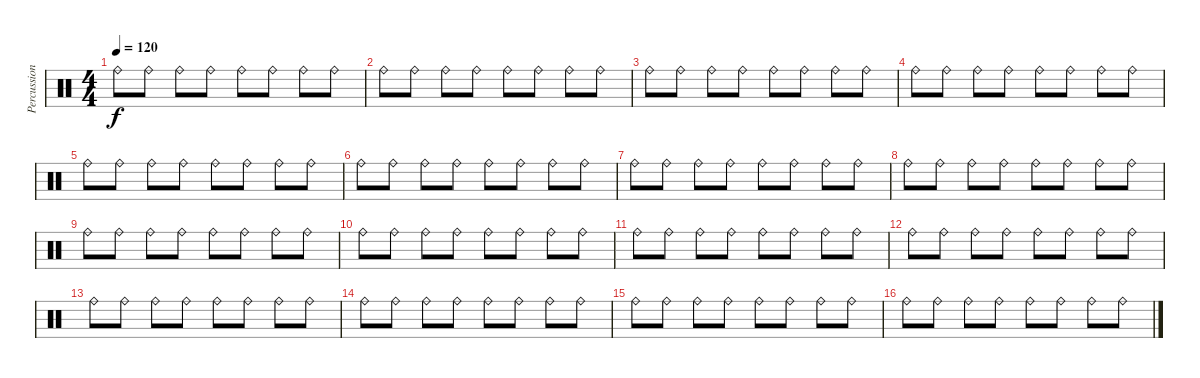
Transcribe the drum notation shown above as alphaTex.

\track ("Percussion" "Percussion") {instrument percussion}
\staff {score}
\articulation defaults
\ts (4 4)
\tempo 120
\clef neutral
\ks c "Ride (bell)".8{dy f} "Ride (bell)".8 "Ride (bell)".8 "Ride (bell)".8 "Ride (bell)".8 "Ride (bell)".8 "Ride (bell)".8 "Ride (bell)".8
|
"Ride (bell)".8 "Ride (bell)".8 "Ride (bell)".8 "Ride (bell)".8 "Ride (bell)".8 "Ride (bell)".8 "Ride (bell)".8 "Ride (bell)".8 |
"Ride (bell)".8 "Ride (bell)".8 "Ride (bell)".8 "Ride (bell)".8 "Ride (bell)".8 "Ride (bell)".8 "Ride (bell)".8 "Ride (bell)".8 |
"Ride (bell)".8 "Ride (bell)".8 "Ride (bell)".8 "Ride (bell)".8 "Ride (bell)".8 "Ride (bell)".8 "Ride (bell)".8 "Ride (bell)".8 |
"Ride (bell)".8 "Ride (bell)".8 "Ride (bell)".8 "Ride (bell)".8 "Ride (bell)".8 "Ride (bell)".8 "Ride (bell)".8 "Ride (bell)".8 |
"Ride (bell)".8 "Ride (bell)".8 "Ride (bell)".8 "Ride (bell)".8 "Ride (bell)".8 "Ride (bell)".8 "Ride (bell)".8 "Ride (bell)".8 |
"Ride (bell)".8 "Ride (bell)".8 "Ride (bell)".8 "Ride (bell)".8 "Ride (bell)".8 "Ride (bell)".8 "Ride (bell)".8 "Ride (bell)".8 |
"Ride (bell)".8 "Ride (bell)".8 "Ride (bell)".8 "Ride (bell)".8 "Ride (bell)".8 "Ride (bell)".8 "Ride (bell)".8 "Ride (bell)".8 |
"Ride (bell)".8 "Ride (bell)".8 "Ride (bell)".8 "Ride (bell)".8 "Ride (bell)".8 "Ride (bell)".8 "Ride (bell)".8 "Ride (bell)".8 |
"Ride (bell)".8 "Ride (bell)".8 "Ride (bell)".8 "Ride (bell)".8 "Ride (bell)".8 "Ride (bell)".8 "Ride (bell)".8 "Ride (bell)".8 |
"Ride (bell)".8 "Ride (bell)".8 "Ride (bell)".8 "Ride (bell)".8 "Ride (bell)".8 "Ride (bell)".8 "Ride (bell)".8 "Ride (bell)".8 |
"Ride (bell)".8 "Ride (bell)".8 "Ride (bell)".8 "Ride (bell)".8 "Ride (bell)".8 "Ride (bell)".8 "Ride (bell)".8 "Ride (bell)".8 |
"Ride (bell)".8 "Ride (bell)".8 "Ride (bell)".8 "Ride (bell)".8 "Ride (bell)".8 "Ride (bell)".8 "Ride (bell)".8 "Ride (bell)".8 |
"Ride (bell)".8 "Ride (bell)".8 "Ride (bell)".8 "Ride (bell)".8 "Ride (bell)".8 "Ride (bell)".8 "Ride (bell)".8 "Ride (bell)".8 |
"Ride (bell)".8 "Ride (bell)".8 "Ride (bell)".8 "Ride (bell)".8 "Ride (bell)".8 "Ride (bell)".8 "Ride (bell)".8 "Ride (bell)".8 |
"Ride (bell)".8 "Ride (bell)".8 "Ride (bell)".8 "Ride (bell)".8 "Ride (bell)".8 "Ride (bell)".8 "Ride (bell)".8 "Ride (bell)".8
